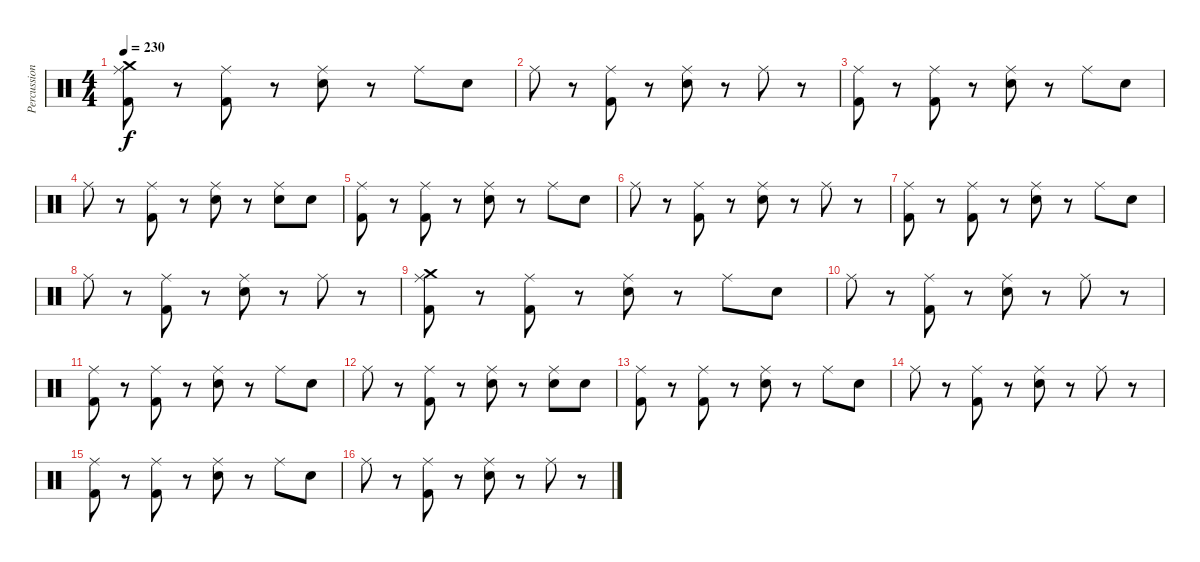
\track ("Percussion" "Percussion") {instrument percussion}
\staff {score}
\articulation defaults
\ts (4 4)
\tempo 230
\clef neutral
\ks c
("Ride (middle)" "Kick (hit) 2" "Crash medium (hit)").8{dy f} r.8 ("Ride (middle)" "Kick (hit) 2").8 r.8 ("Ride (middle)" "Snare (hit) 2").8 r.8 "Ride (middle)".8 "Snare (hit) 2".8 |
"Ride (middle)".8 r.8 ("Ride (middle)" "Kick (hit) 2").8 r.8 ("Ride (middle)" "Snare (hit) 2").8 r.8 "Ride (middle)".8 r.8 |
("Ride (middle)" "Kick (hit) 2").8 r.8 ("Ride (middle)" "Kick (hit) 2").8 r.8 ("Ride (middle)" "Snare (hit) 2").8 r.8 "Ride (middle)".8 "Snare (hit) 2".8 |
"Ride (middle)".8 r.8 ("Ride (middle)" "Kick (hit) 2").8 r.8 ("Ride (middle)" "Snare (hit) 2").8 r.8 ("Ride (middle)" "Snare (hit) 2").8 "Snare (hit) 2".8 |
("Ride (middle)" "Kick (hit) 2").8 r.8 ("Ride (middle)" "Kick (hit) 2").8 r.8 ("Ride (middle)" "Snare (hit) 2").8 r.8 "Ride (middle)".8 "Snare (hit) 2".8 |
"Ride (middle)".8 r.8 ("Ride (middle)" "Kick (hit) 2").8 r.8 ("Ride (middle)" "Snare (hit) 2").8 r.8 "Ride (middle)".8 r.8 |
("Ride (middle)" "Kick (hit) 2").8 r.8 ("Ride (middle)" "Kick (hit) 2").8 r.8 ("Ride (middle)" "Snare (hit) 2").8 r.8 "Ride (middle)".8 "Snare (hit) 2".8 |
"Ride (middle)".8 r.8 ("Ride (middle)" "Kick (hit) 2").8 r.8 ("Ride (middle)" "Snare (hit) 2").8 r.8 "Ride (middle)".8 r.8 |
("Ride (middle)" "Kick (hit) 2" "Crash medium (hit)").8 r.8 ("Ride (middle)" "Kick (hit) 2").8 r.8 ("Ride (middle)" "Snare (hit) 2").8 r.8 "Ride (middle)".8 "Snare (hit) 2".8 |
"Ride (middle)".8 r.8 ("Ride (middle)" "Kick (hit) 2").8 r.8 ("Ride (middle)" "Snare (hit) 2").8 r.8 "Ride (middle)".8 r.8 |
("Ride (middle)" "Kick (hit) 2").8 r.8 ("Ride (middle)" "Kick (hit) 2").8 r.8 ("Ride (middle)" "Snare (hit) 2").8 r.8 "Ride (middle)".8 "Snare (hit) 2".8 |
"Ride (middle)".8 r.8 ("Ride (middle)" "Kick (hit) 2").8 r.8 ("Ride (middle)" "Snare (hit) 2").8 r.8 ("Ride (middle)" "Snare (hit) 2").8 "Snare (hit) 2".8 |
("Ride (middle)" "Kick (hit) 2").8 r.8 ("Ride (middle)" "Kick (hit) 2").8 r.8 ("Ride (middle)" "Snare (hit) 2").8 r.8 "Ride (middle)".8 "Snare (hit) 2".8 |
"Ride (middle)".8 r.8 ("Ride (middle)" "Kick (hit) 2").8 r.8 ("Ride (middle)" "Snare (hit) 2").8 r.8 "Ride (middle)".8 r.8 |
("Ride (middle)" "Kick (hit) 2").8 r.8 ("Ride (middle)" "Kick (hit) 2").8 r.8 ("Ride (middle)" "Snare (hit) 2").8 r.8 "Ride (middle)".8 "Snare (hit) 2".8 |
"Ride (middle)".8 r.8 ("Ride (middle)" "Kick (hit) 2").8 r.8 ("Ride (middle)" "Snare (hit) 2").8 r.8 "Ride (middle)".8 r.8
